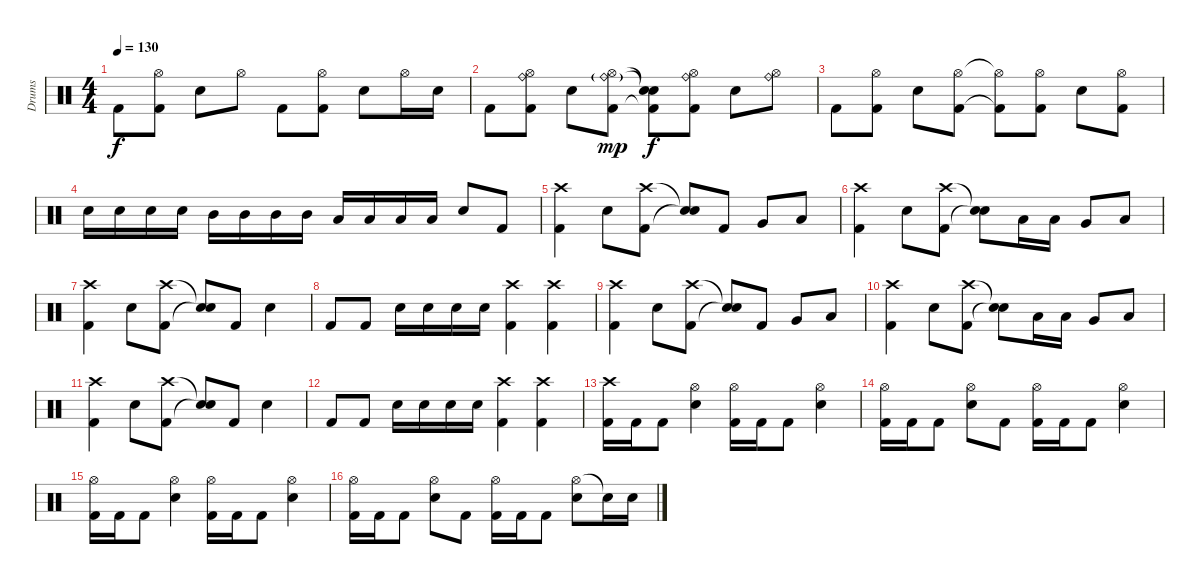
\track ("Drums" "Drums") {instrument percussion}
\staff {score}
\articulation defaults
\ts (4 4)
\tempo 130
\clef neutral
\ks c "Kick (hit) 2".8{dy f}
("Hi-Hat (open)" "Kick (hit) 2").8 "Electric Snare (hit)".8 "Hi-Hat (open)".8 "Kick (hit) 2".8 ("Hi-Hat (open)" "Kick (hit) 2").8 "Electric Snare (hit)".8 "Hi-Hat (open)".16 "Electric Snare (hit)".16 |
"Kick (hit) 2".8 ("Hi-Hat (open)" "Ride (bell)" "Kick (hit) 2").8 "Electric Snare (hit)".8 ("Hi-Hat (open)" "Ride (bell)"{g} "Kick (hit) 2").8{dy mp} ("Snare (hit)"{t} "Snare (hit)"{t} "Kick (hit) 2"{t}).8{dy f} ("Hi-Hat (open)" "Ride (bell)" "Kick (hit) 2").8 "Electric Snare (hit)".8 ("Hi-Hat (open)" "Ride (bell)").8 |
"Kick (hit) 2".8 ("Hi-Hat (open)" "Kick (hit) 2").8 "Electric Snare (hit)".8 ("Hi-Hat (open)" "Kick (hit) 2").8 ("Hi-Hat (open)"{t} "Kick (hit) 2"{t}).8 ("Hi-Hat (open)" "Kick (hit) 2").8 "Electric Snare (hit)".8 ("Hi-Hat (open)" "Kick (hit) 2").8 |
"Electric Snare (hit)".16 "Electric Snare (hit)".16 "Electric Snare (hit)".16 "Electric Snare (hit)".16 "Mid Tom (hit)".16 "Mid Tom (hit)".16 "Mid Tom (hit)".16 "Mid Tom (hit)".16 "Low Tom (hit)".16 "Low Tom (hit)".16 "Low Tom (hit)".16 "Low Tom (hit)".16 "Electric Snare (hit)".8 "Kick (hit) 2".8 |
("Crash high (hit)" "Kick (hit) 2").4 "Electric Snare (hit)".8 ("Crash high (hit)" "Kick (hit) 2").8 ("Snare (hit)"{t} "Snare (hit)"{t}).8 "Kick (hit) 2".8 "Very Low Tom (hit)".8 "Low Floor Tom (hit)".8 |
("Crash high (hit)" "Kick (hit) 2").4 "Electric Snare (hit)".8 ("Crash high (hit)" "Kick (hit) 2").8 ("Snare (hit)"{t} "Snare (hit)"{t}).8 "Low Tom (hit)".16 "Low Tom (hit)".16 "Very Low Tom (hit)".8 "Low Floor Tom (hit)".8 |
("Crash high (hit)" "Kick (hit) 2").4 "Electric Snare (hit)".8 ("Crash high (hit)" "Kick (hit) 2").8 ("Snare (hit)"{t} "Snare (hit)"{t}).8 "Kick (hit) 2".8 "Electric Snare (hit)".4 |
"Kick (hit) 2".8 "Kick (hit) 2".8 "Electric Snare (hit)".16 "Electric Snare (hit)".16 "Electric Snare (hit)".16 "Electric Snare (hit)".16 ("Crash high (hit)" "Kick (hit) 2").4 ("Crash high (hit)" "Kick (hit) 2").4 |
("Crash high (hit)" "Kick (hit) 2").4 "Electric Snare (hit)".8 ("Crash high (hit)" "Kick (hit) 2").8 ("Snare (hit)"{t} "Snare (hit)"{t}).8 "Kick (hit) 2".8 "Very Low Tom (hit)".8 "Low Floor Tom (hit)".8 |
("Crash high (hit)" "Kick (hit) 2").4 "Electric Snare (hit)".8 ("Crash high (hit)" "Kick (hit) 2").8 ("Snare (hit)"{t} "Snare (hit)"{t}).8 "Low Tom (hit)".16 "Low Tom (hit)".16 "Very Low Tom (hit)".8 "Low Floor Tom (hit)".8 |
("Crash high (hit)" "Kick (hit) 2").4 "Electric Snare (hit)".8 ("Crash high (hit)" "Kick (hit) 2").8 ("Snare (hit)"{t} "Snare (hit)"{t}).8 "Kick (hit) 2".8 "Electric Snare (hit)".4 |
"Kick (hit) 2".8 "Kick (hit) 2".8 "Electric Snare (hit)".16 "Electric Snare (hit)".16 "Electric Snare (hit)".16 "Electric Snare (hit)".16 ("Crash high (hit)" "Kick (hit) 2").4 ("Crash high (hit)" "Kick (hit) 2").4 |
("Crash high (hit)" "Kick (hit) 2").16 "Kick (hit) 2".16 "Kick (hit) 2".8 ("Hi-Hat (open)" "Electric Snare (hit)").4 ("Hi-Hat (open)" "Kick (hit) 2").16 "Kick (hit) 2".16 "Kick (hit) 2".8 ("Hi-Hat (open)" "Electric Snare (hit)").4 |
("Hi-Hat (open)" "Kick (hit) 2").16 "Kick (hit) 2".16 "Kick (hit) 2".8 ("Hi-Hat (open)" "Electric Snare (hit)").8 "Kick (hit) 2".8 ("Hi-Hat (open)" "Kick (hit) 2").16 "Kick (hit) 2".16 "Kick (hit) 2".8 ("Hi-Hat (open)" "Electric Snare (hit)").4 |
("Hi-Hat (open)" "Kick (hit) 2").16 "Kick (hit) 2".16 "Kick (hit) 2".8 ("Hi-Hat (open)" "Electric Snare (hit)").4 ("Hi-Hat (open)" "Kick (hit) 2").16 "Kick (hit) 2".16 "Kick (hit) 2".8 ("Hi-Hat (open)" "Electric Snare (hit)").4 |
("Hi-Hat (open)" "Kick (hit) 2").16 "Kick (hit) 2".16 "Kick (hit) 2".8 ("Hi-Hat (open)" "Electric Snare (hit)").8 "Kick (hit) 2".8 ("Hi-Hat (open)" "Kick (hit) 2").16 "Kick (hit) 2".16 "Kick (hit) 2".8 ("Hi-Hat (open)" "Electric Snare (hit)").8 "Snare (hit)"{t}.16 "Electric Snare (hit)".16
